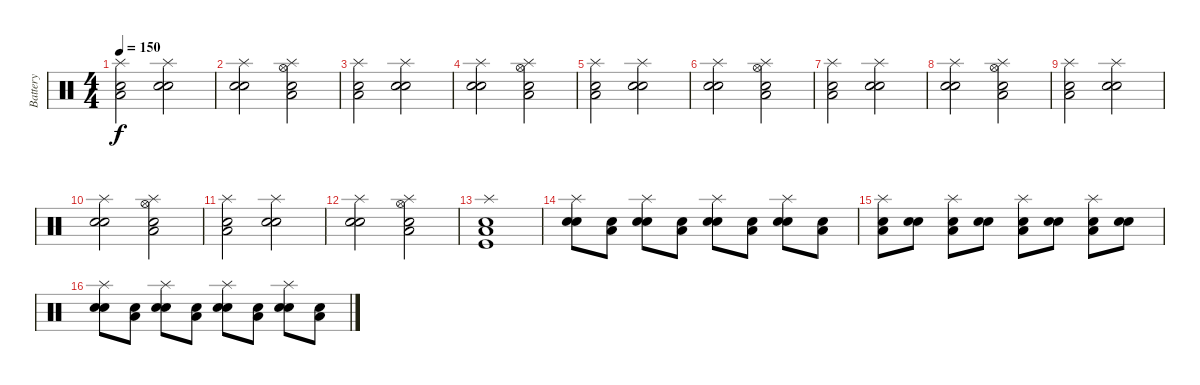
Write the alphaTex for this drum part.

\track ("Battery" "Battery") {instrument percussion}
\staff {score}
\articulation defaults
\ts (4 4)
\tempo 150
\clef neutral
\ks c
("Snare (hit) 2" "Low Floor Tom (hit)" "Splash (hit)").2{dy f} ("Snare (hit) 2" "Electric Snare (hit)" "Splash (hit)").2 |
("Snare (hit) 2" "Electric Snare (hit)" "Splash (hit)").2 ("Snare (hit) 2" "Low Floor Tom (hit)" "Splash (hit)" "Hi-Hat (open)").2 |
("Snare (hit) 2" "Low Floor Tom (hit)" "Splash (hit)").2 ("Snare (hit) 2" "Electric Snare (hit)" "Splash (hit)").2 |
("Snare (hit) 2" "Electric Snare (hit)" "Splash (hit)").2 ("Snare (hit) 2" "Low Floor Tom (hit)" "Splash (hit)" "Hi-Hat (open)").2 |
("Snare (hit) 2" "Low Floor Tom (hit)" "Splash (hit)").2 ("Snare (hit) 2" "Electric Snare (hit)" "Splash (hit)").2 |
("Snare (hit) 2" "Electric Snare (hit)" "Splash (hit)").2 ("Snare (hit) 2" "Low Floor Tom (hit)" "Splash (hit)" "Hi-Hat (open)").2 |
("Snare (hit) 2" "Low Floor Tom (hit)" "Splash (hit)").2 ("Snare (hit) 2" "Electric Snare (hit)" "Splash (hit)").2 |
("Snare (hit) 2" "Electric Snare (hit)" "Splash (hit)").2 ("Snare (hit) 2" "Low Floor Tom (hit)" "Splash (hit)" "Hi-Hat (open)").2 |
("Snare (hit) 2" "Low Floor Tom (hit)" "Splash (hit)").2 ("Snare (hit) 2" "Electric Snare (hit)" "Splash (hit)").2 |
("Snare (hit) 2" "Electric Snare (hit)" "Splash (hit)").2 ("Snare (hit) 2" "Low Floor Tom (hit)" "Splash (hit)" "Hi-Hat (open)").2 |
("Snare (hit) 2" "Low Floor Tom (hit)" "Splash (hit)").2 ("Snare (hit) 2" "Electric Snare (hit)" "Splash (hit)").2 |
("Snare (hit) 2" "Electric Snare (hit)" "Splash (hit)").2 ("Snare (hit) 2" "Low Floor Tom (hit)" "Splash (hit)" "Hi-Hat (open)").2 |
("Snare (hit) 2" "Low Floor Tom (hit)" "Splash (hit)" "Kick (hit)").1 |
("Snare (hit) 2" "Splash (hit)" "Electric Snare (hit)").8 ("Snare (hit) 2" "Low Floor Tom (hit)").8 ("Snare (hit) 2" "Splash (hit)" "Electric Snare (hit)").8 ("Snare (hit) 2" "Low Floor Tom (hit)").8 ("Snare (hit) 2" "Splash (hit)" "Electric Snare (hit)").8 ("Snare (hit) 2" "Low Floor Tom (hit)").8 ("Snare (hit) 2" "Splash (hit)" "Electric Snare (hit)").8 ("Snare (hit) 2" "Low Floor Tom (hit)").8 |
("Snare (hit) 2" "Splash (hit)" "Low Floor Tom (hit)").8 ("Snare (hit) 2" "Electric Snare (hit)").8 ("Snare (hit) 2" "Splash (hit)" "Low Floor Tom (hit)").8 ("Snare (hit) 2" "Electric Snare (hit)").8 ("Snare (hit) 2" "Splash (hit)" "Low Floor Tom (hit)").8 ("Snare (hit) 2" "Electric Snare (hit)").8 ("Snare (hit) 2" "Splash (hit)" "Low Floor Tom (hit)").8 ("Snare (hit) 2" "Electric Snare (hit)").8 |
("Snare (hit) 2" "Splash (hit)" "Electric Snare (hit)").8 ("Snare (hit) 2" "Low Floor Tom (hit)").8 ("Snare (hit) 2" "Splash (hit)" "Electric Snare (hit)").8 ("Snare (hit) 2" "Low Floor Tom (hit)").8 ("Snare (hit) 2" "Splash (hit)" "Electric Snare (hit)").8 ("Snare (hit) 2" "Low Floor Tom (hit)").8 ("Snare (hit) 2" "Splash (hit)" "Electric Snare (hit)").8 ("Snare (hit) 2" "Low Floor Tom (hit)").8
